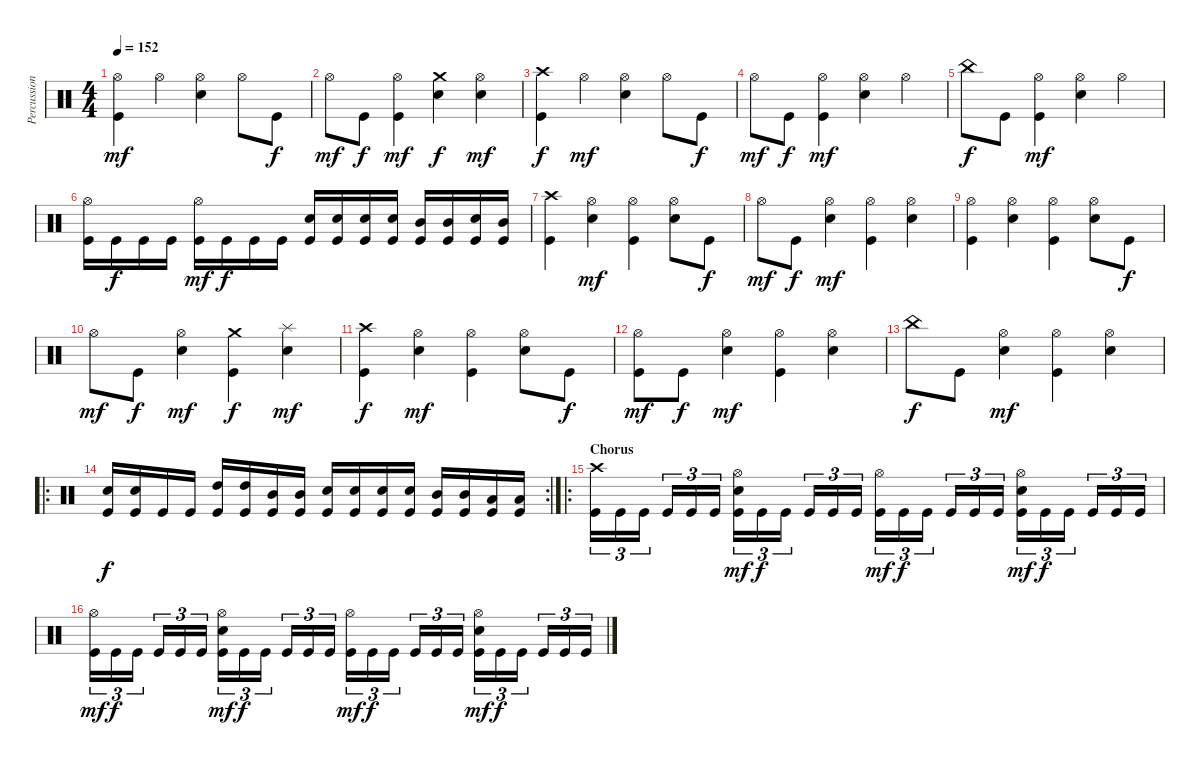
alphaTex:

\track ("Percussion" "Percussion") {instrument percussion}
\staff {score}
\articulation defaults
\ts (4 4)
\tempo 152
\clef neutral
\ks c
("Hi-Hat (open)" "Kick (hit)").4{dy mf} "Hi-Hat (open)".4 ("Hi-Hat (open)" "Snare (hit) 2").4 "Hi-Hat (open)".8 "Kick (hit)".8{dy f} |
"Hi-Hat (open)".8{dy mf} "Kick (hit)".8{dy f} ("Hi-Hat (open)" "Kick (hit)").4{dy mf} ("Crash medium (hit)" "Snare (hit) 2").4{dy f} ("Hi-Hat (open)" "Snare (hit) 2").4{dy mf} |
("Crash high (hit)" "Kick (hit)").4{dy f} "Hi-Hat (open)".4{dy mf} ("Hi-Hat (open)" "Snare (hit) 2").4 "Hi-Hat (open)".8 "Kick (hit)".8{dy f} |
"Hi-Hat (open)".8{dy mf} "Kick (hit)".8{dy f} ("Hi-Hat (open)" "Kick (hit)").4{dy mf} ("Hi-Hat (open)" "Snare (hit) 2").4 "Hi-Hat (open)".4 |
"China (hit)".8{dy f} "Kick (hit)".8 ("Hi-Hat (open)" "Kick (hit)").4{dy mf} ("Hi-Hat (open)" "Snare (hit) 2").4 "Hi-Hat (open)".4 |
("Hi-Hat (open)" "Kick (hit)").16 "Kick (hit)".16{dy f} "Kick (hit)".16 "Kick (hit)".16 ("Hi-Hat (open)" "Kick (hit)").16{dy mf} "Kick (hit)".16{dy f} "Kick (hit)".16 "Kick (hit)".16 ("Snare (hit) 2" "Kick (hit)").16 ("Snare (hit) 2" "Kick (hit)").16 ("Snare (hit) 2" "Kick (hit)").16 ("Snare (hit) 2" "Kick (hit)").16 ("Mid Tom (hit)" "Kick (hit)").16 ("Mid Tom (hit)" "Kick (hit)").16 ("Snare (hit) 2" "Kick (hit)").16 ("Mid Tom (hit)" "Kick (hit)").16 |
("Crash high (hit)" "Kick (hit)").4 ("Hi-Hat (open)" "Snare (hit) 2").4{dy mf} ("Hi-Hat (open)" "Kick (hit)").4 ("Hi-Hat (open)" "Snare (hit) 2").8 "Kick (hit)".8{dy f} |
"Hi-Hat (open)".8{dy mf} "Kick (hit)".8{dy f} ("Hi-Hat (open)" "Snare (hit) 2").4{dy mf} ("Hi-Hat (open)" "Kick (hit)").4 ("Hi-Hat (open)" "Snare (hit) 2").4 |
("Hi-Hat (open)" "Kick (hit)").4 ("Hi-Hat (open)" "Snare (hit) 2").4 ("Hi-Hat (open)" "Kick (hit)").4 ("Hi-Hat (open)" "Snare (hit) 2").8 "Kick (hit)".8{dy f} |
"Hi-Hat (open)".8{dy mf} "Kick (hit)".8{dy f} ("Hi-Hat (open)" "Snare (hit) 2").4{dy mf} ("Crash medium (hit)" "Kick (hit)").4{dy f} ("Splash (hit)" "Snare (hit) 2").4{dy mf} |
("Crash high (hit)" "Kick (hit)").4{dy f} ("Hi-Hat (open)" "Snare (hit) 2").4{dy mf} ("Hi-Hat (open)" "Kick (hit)").4 ("Hi-Hat (open)" "Snare (hit) 2").8 "Kick (hit)".8{dy f} |
("Hi-Hat (open)" "Kick (hit)").8{dy mf} "Kick (hit)".8{dy f} ("Hi-Hat (open)" "Snare (hit) 2").4{dy mf} ("Hi-Hat (open)" "Kick (hit)").4 ("Hi-Hat (open)" "Snare (hit) 2").4 |
"China (hit)".8{dy f} "Kick (hit)".8 ("Hi-Hat (open)" "Snare (hit) 2").4{dy mf} ("Hi-Hat (open)" "Kick (hit)").4 ("Hi-Hat (open)" "Snare (hit) 2").4 |
\ro
\rc 2
("Snare (hit) 2" "Kick (hit)").16{dy f} ("Snare (hit) 2" "Kick (hit)").16 "Kick (hit)".16 "Kick (hit)".16 ("High Tom (hit)" "Kick (hit)").16 ("High Tom (hit)" "Kick (hit)").16 ("Mid Tom (hit)" "Kick (hit)").16 ("Mid Tom (hit)" "Kick (hit)").16 ("Snare (hit) 2" "Kick (hit)").16 ("Snare (hit) 2" "Kick (hit)").16 ("Snare (hit) 2" "Kick (hit)").16 ("Snare (hit) 2" "Kick (hit)").16 ("Mid Tom (hit)" "Kick (hit)").16 ("Mid Tom (hit)" "Kick (hit)").16 ("Low Tom (hit)" "Kick (hit)").16 ("Low Tom (hit)" "Kick (hit)").16 |
\ro
\section ("" "Chorus")
("Crash high (hit)" "Kick (hit)").16{tu (3 2)} "Kick (hit)".16{tu (3 2)} "Kick (hit)".16{tu (3 2)} "Kick (hit)".16{tu (3 2)} "Kick (hit)".16{tu (3 2)} "Kick (hit)".16{tu (3 2)} ("Hi-Hat (open)" "Snare (hit) 2" "Kick (hit)").16{tu (3 2) dy mf} "Kick (hit)".16{tu (3 2) dy f} "Kick (hit)".16{tu (3 2)} "Kick (hit)".16{tu (3 2)} "Kick (hit)".16{tu (3 2)} "Kick (hit)".16{tu (3 2)} ("Hi-Hat (open)" "Kick (hit)").16{tu (3 2) dy mf} "Kick (hit)".16{tu (3 2) dy f} "Kick (hit)".16{tu (3 2)} "Kick (hit)".16{tu (3 2)} "Kick (hit)".16{tu (3 2)} "Kick (hit)".16{tu (3 2)} ("Hi-Hat (open)" "Snare (hit) 2" "Kick (hit)").16{tu (3 2) dy mf} "Kick (hit)".16{tu (3 2) dy f} "Kick (hit)".16{tu (3 2)} "Kick (hit)".16{tu (3 2)} "Kick (hit)".16{tu (3 2)} "Kick (hit)".16{tu (3 2)} |
("Hi-Hat (open)" "Kick (hit)").16{tu (3 2) dy mf} "Kick (hit)".16{tu (3 2) dy f} "Kick (hit)".16{tu (3 2)} "Kick (hit)".16{tu (3 2)} "Kick (hit)".16{tu (3 2)} "Kick (hit)".16{tu (3 2)} ("Hi-Hat (open)" "Snare (hit) 2" "Kick (hit)").16{tu (3 2) dy mf} "Kick (hit)".16{tu (3 2) dy f} "Kick (hit)".16{tu (3 2)} "Kick (hit)".16{tu (3 2)} "Kick (hit)".16{tu (3 2)} "Kick (hit)".16{tu (3 2)} ("Hi-Hat (open)" "Kick (hit)").16{tu (3 2) dy mf} "Kick (hit)".16{tu (3 2) dy f} "Kick (hit)".16{tu (3 2)} "Kick (hit)".16{tu (3 2)} "Kick (hit)".16{tu (3 2)} "Kick (hit)".16{tu (3 2)} ("Hi-Hat (open)" "Snare (hit) 2" "Kick (hit)").16{tu (3 2) dy mf} "Kick (hit)".16{tu (3 2) dy f} "Kick (hit)".16{tu (3 2)} "Kick (hit)".16{tu (3 2)} "Kick (hit)".16{tu (3 2)} "Kick (hit)".16{tu (3 2)}
